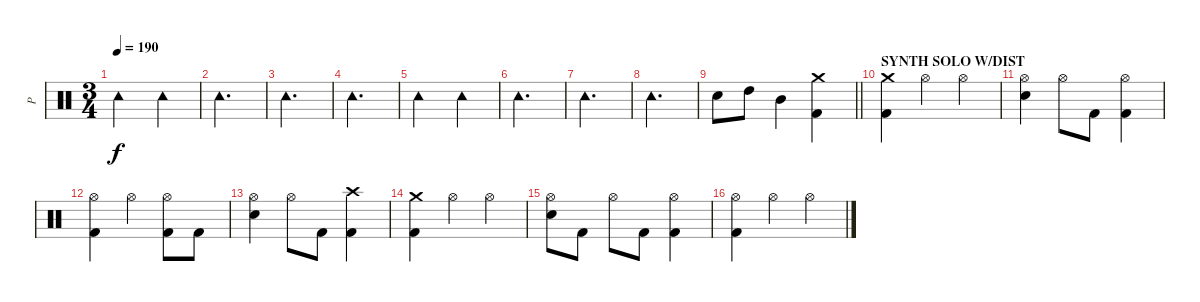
\track ("P" "P") {instrument percussion}
\staff {score}
\articulation defaults
\ts (3 4)
\tempo 190
\clef neutral
\ks c "Tambourine (hit)".2{dy f} "Tambourine (hit)".4
|
"Tambourine (hit)".2{d} |
"Tambourine (hit)".2{d} |
"Tambourine (hit)".2{d} |
"Tambourine (hit)".2 "Tambourine (hit)".4 |
"Tambourine (hit)".2{d} |
"Tambourine (hit)".2{d} |
"Tambourine (hit)".2{d} |
\barLineRight lightlight "Electric Snare (hit)".8 "High Tom (hit)".8 "Mid Tom (hit)".4
("Crash medium (hit)" "Kick (hit) 2").4 |
\section ("" "SYNTH SOLO W/DIST")
("Crash medium (hit)" "Kick (hit) 2").4 "Hi-Hat (open)".4 "Hi-Hat (open)".4 |
("Hi-Hat (open)" "Electric Snare (hit)").4 "Hi-Hat (open)".8 "Kick (hit) 2".8 ("Hi-Hat (open)" "Kick (hit) 2").4 |
("Hi-Hat (open)" "Kick (hit) 2").4 "Hi-Hat (open)".4 ("Hi-Hat (open)" "Kick (hit) 2").8 "Kick (hit) 2".8 |
("Hi-Hat (open)" "Electric Snare (hit)").4 "Hi-Hat (open)".8 "Kick (hit) 2".8 ("Crash high (hit)" "Kick (hit) 2").4 |
("Crash medium (hit)" "Kick (hit) 2").4 "Hi-Hat (open)".4 "Hi-Hat (open)".4 |
("Hi-Hat (open)" "Electric Snare (hit)").8 "Kick (hit) 2".8 "Hi-Hat (open)".8 "Kick (hit) 2".8 ("Hi-Hat (open)" "Kick (hit) 2").4 |
("Hi-Hat (open)" "Kick (hit) 2").4 "Hi-Hat (open)".4 "Hi-Hat (open)".4
